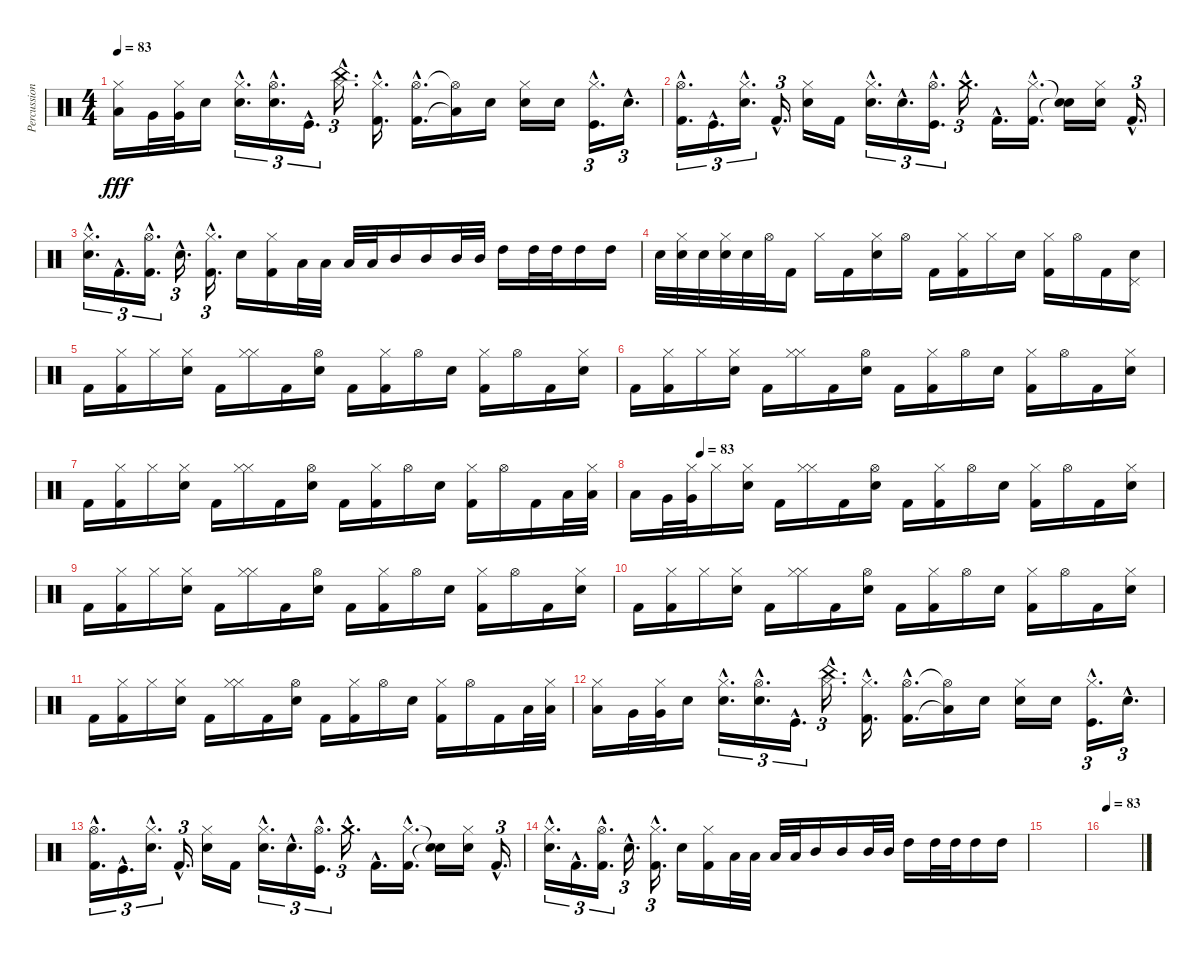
\track ("Percussion" "Percussion") {instrument percussion}
\staff {score}
\articulation defaults
\ts (4 4)
\tempo 83
\clef neutral
\ks c
("Hi-Hat (closed)" "Low Floor Tom (hit)").16{dy fff} "Very Low Tom (hit)".32 ("Hi-Hat (closed)" "Very Low Tom (hit)").32 "Snare (hit) 2".16 ("Hi-Hat (closed)"{hac} "Snare (hit) 2"{hac}).16{d tu (3 2)} ("Hi-Hat (open)"{hac} "Snare (hit) 2"{hac}).16{d tu (3 2)} "Kick (hit)"{hac}.16{d tu (3 2)} ("Hi-Hat (closed)"{hac} "China (hit)"{hac}).16{d tu (3 2)} ("Hi-Hat (closed)"{hac} "Kick (hit) 2"{hac}).16{d} ("Hi-Hat (open)"{hac} "Kick (hit) 2"{hac}).16{d} ("Hi-Hat (open)"{t} "Low Tom (hit)"{t}).16 "Snare (hit) 2".16 ("Hi-Hat (closed)" "Snare (hit) 2").16 "Snare (hit) 2".16 ("Hi-Hat (closed)"{hac} "Kick (hit)"{hac}).16{d tu (3 2)} "Snare (hit) 2"{hac}.16{d tu (3 2)} |
("Hi-Hat (open)"{hac} "Kick (hit) 2"{hac}).16{d tu (3 2)} "Kick (hit)"{hac}.16{d tu (3 2)} ("Hi-Hat (closed)"{hac} "Snare (hit) 2"{hac}).16{d tu (3 2)} "Kick (hit) 2"{hac}.16{d tu (3 2)} ("Hi-Hat (closed)" "Snare (hit) 2").16 "Kick (hit) 2".16 ("Hi-Hat (closed)"{hac} "Snare (hit) 2"{hac}).16{d tu (3 2)} "Snare (hit) 2"{hac}.16{d tu (3 2)} ("Hi-Hat (open)"{hac} "Kick (hit)"{hac}).16{d tu (3 2)} "Crash medium (hit)"{hac}.16{d tu (3 2)} "Kick (hit) 2"{hac}.16{d} ("Hi-Hat (closed)"{hac} "Kick (hit) 2"{hac}).16{d} ("Snare (hit)"{t} "Snare (hit)"{t}).16 ("Hi-Hat (closed)" "Snare (hit) 2").16 "Kick (hit) 2"{hac}.16{d tu (3 2)} |
("Hi-Hat (closed)"{hac} "Snare (hit) 2"{hac}).16{d tu (3 2)} "Kick (hit) 2"{hac}.16{d tu (3 2)} ("Hi-Hat (open)"{hac} "Kick (hit) 2"{hac}).16{d tu (3 2)} "Snare (hit) 2"{hac}.16{d tu (3 2)} ("Hi-Hat (closed)"{hac} "Kick (hit) 2"{hac}).16{d tu (3 2)} "Snare (hit) 2".16 ("Hi-Hat (closed)" "Kick (hit) 2").16 "Low Tom (hit)".32 "Low Tom (hit)".32 "Low Tom (hit)".32 "Low Tom (hit)".32 "Mid Tom (hit)".16 "Mid Tom (hit)".16 "Mid Tom (hit)".32 "Mid Tom (hit)".32 "High Tom (hit)".16 "High Tom (hit)".32 "High Tom (hit)".32 "High Tom (hit)".16 "High Tom (hit)".16 |
"Snare (hit) 2".32 ("Hi-Hat (closed)" "Snare (hit) 2").32 "Snare (hit) 2".32 ("Hi-Hat (closed)" "Snare (hit) 2").32 "Snare (hit) 2".32 "Hi-Hat (open)".32 "Kick (hit) 2".16 "Hi-Hat (closed)".16 "Kick (hit) 2".16 ("Hi-Hat (closed)" "Snare (hit) 2").16 "Hi-Hat (open)".16 "Kick (hit) 2".16 ("Hi-Hat (closed)" "Kick (hit) 2").16 "Hi-Hat (closed)".16 "Snare (hit) 2".16 ("Hi-Hat (closed)" "Kick (hit) 2").16 "Hi-Hat (open)".16 "Kick (hit) 2".16 ("Pedal Hi-Hat (hit)" "Snare (hit) 2").16 |
"Kick (hit) 2".16 ("Hi-Hat (closed)" "Kick (hit) 2").16 "Hi-Hat (closed)".16 ("Hi-Hat (closed)" "Snare (hit) 2").16 "Kick (hit) 2".16 ("Hi-Hat (closed)" "Hi-Hat (closed)").16 "Kick (hit) 2".16 ("Hi-Hat (open)" "Snare (hit) 2").16 "Kick (hit) 2".16 ("Hi-Hat (closed)" "Kick (hit) 2").16 "Hi-Hat (open)".16 "Snare (hit) 2".16 ("Hi-Hat (closed)" "Kick (hit) 2").16 "Hi-Hat (open)".16 "Kick (hit) 2".16 ("Hi-Hat (closed)" "Snare (hit) 2").16 |
"Kick (hit) 2".16 ("Hi-Hat (closed)" "Kick (hit) 2").16 "Hi-Hat (closed)".16 ("Hi-Hat (closed)" "Snare (hit) 2").16 "Kick (hit) 2".16 ("Hi-Hat (closed)" "Hi-Hat (closed)").16 "Kick (hit) 2".16 ("Hi-Hat (open)" "Snare (hit) 2").16 "Kick (hit) 2".16 ("Hi-Hat (closed)" "Kick (hit) 2").16 "Hi-Hat (open)".16 "Snare (hit) 2".16 ("Hi-Hat (closed)" "Kick (hit) 2").16 "Hi-Hat (open)".16 "Kick (hit) 2".16 ("Hi-Hat (closed)" "Snare (hit) 2").16 |
"Kick (hit) 2".16 ("Hi-Hat (closed)" "Kick (hit) 2").16 "Hi-Hat (closed)".16 ("Hi-Hat (closed)" "Snare (hit) 2").16 "Kick (hit) 2".16 ("Hi-Hat (closed)" "Hi-Hat (closed)").16 "Kick (hit) 2".16 ("Hi-Hat (open)" "Snare (hit) 2").16 "Kick (hit) 2".16 ("Hi-Hat (closed)" "Kick (hit) 2").16 "Hi-Hat (open)".16 "Snare (hit) 2".16 ("Hi-Hat (closed)" "Kick (hit) 2").16 "Hi-Hat (open)".16 "Kick (hit) 2".16 "Low Tom (hit)".32 ("Hi-Hat (closed)" "Low Tom (hit)").32 |
\tempo (83 0.125)
"Low Floor Tom (hit)".16 "Very Low Tom (hit)".32 ("Hi-Hat (closed)" "Very Low Tom (hit)").32 "Hi-Hat (closed)".16 ("Hi-Hat (closed)" "Snare (hit) 2").16 "Kick (hit) 2".16 ("Hi-Hat (closed)" "Hi-Hat (closed)").16 "Kick (hit) 2".16 ("Hi-Hat (open)" "Snare (hit) 2").16 "Kick (hit) 2".16 ("Hi-Hat (closed)" "Kick (hit) 2").16 "Hi-Hat (open)".16 "Snare (hit) 2".16 ("Hi-Hat (closed)" "Kick (hit) 2").16 "Hi-Hat (open)".16 "Kick (hit) 2".16 ("Hi-Hat (closed)" "Snare (hit) 2").16 |
"Kick (hit) 2".16 ("Hi-Hat (closed)" "Kick (hit) 2").16 "Hi-Hat (closed)".16 ("Hi-Hat (closed)" "Snare (hit) 2").16 "Kick (hit) 2".16 ("Hi-Hat (closed)" "Hi-Hat (closed)").16 "Kick (hit) 2".16 ("Hi-Hat (open)" "Snare (hit) 2").16 "Kick (hit) 2".16 ("Hi-Hat (closed)" "Kick (hit) 2").16 "Hi-Hat (open)".16 "Snare (hit) 2".16 ("Hi-Hat (closed)" "Kick (hit) 2").16 "Hi-Hat (open)".16 "Kick (hit) 2".16 ("Hi-Hat (closed)" "Snare (hit) 2").16 |
"Kick (hit) 2".16 ("Hi-Hat (closed)" "Kick (hit) 2").16 "Hi-Hat (closed)".16 ("Hi-Hat (closed)" "Snare (hit) 2").16 "Kick (hit) 2".16 ("Hi-Hat (closed)" "Hi-Hat (closed)").16 "Kick (hit) 2".16 ("Hi-Hat (open)" "Snare (hit) 2").16 "Kick (hit) 2".16 ("Hi-Hat (closed)" "Kick (hit) 2").16 "Hi-Hat (open)".16 "Snare (hit) 2".16 ("Hi-Hat (closed)" "Kick (hit) 2").16 "Hi-Hat (open)".16 "Kick (hit) 2".16 ("Hi-Hat (closed)" "Snare (hit) 2").16 |
"Kick (hit) 2".16 ("Hi-Hat (closed)" "Kick (hit) 2").16 "Hi-Hat (closed)".16 ("Hi-Hat (closed)" "Snare (hit) 2").16 "Kick (hit) 2".16 ("Hi-Hat (closed)" "Hi-Hat (closed)").16 "Kick (hit) 2".16 ("Hi-Hat (open)" "Snare (hit) 2").16 "Kick (hit) 2".16 ("Hi-Hat (closed)" "Kick (hit) 2").16 "Hi-Hat (open)".16 "Snare (hit) 2".16 ("Hi-Hat (closed)" "Kick (hit) 2").16 "Hi-Hat (open)".16 "Kick (hit) 2".16 "Low Tom (hit)".32 ("Hi-Hat (closed)" "Low Tom (hit)").32 |
("Hi-Hat (closed)" "Low Floor Tom (hit)").16 "Very Low Tom (hit)".32 ("Hi-Hat (closed)" "Very Low Tom (hit)").32 "Snare (hit) 2".16 ("Hi-Hat (closed)"{hac} "Snare (hit) 2"{hac}).16{d tu (3 2)} ("Hi-Hat (open)"{hac} "Snare (hit) 2"{hac}).16{d tu (3 2)} "Kick (hit)"{hac}.16{d tu (3 2)} ("Hi-Hat (closed)"{hac} "China (hit)"{hac}).16{d tu (3 2)} ("Hi-Hat (closed)"{hac} "Kick (hit) 2"{hac}).16{d} ("Hi-Hat (open)"{hac} "Kick (hit) 2"{hac}).16{d} ("Hi-Hat (open)"{t} "Low Tom (hit)"{t}).16 "Snare (hit) 2".16 ("Hi-Hat (closed)" "Snare (hit) 2").16 "Snare (hit) 2".16 ("Hi-Hat (closed)"{hac} "Kick (hit)"{hac}).16{d tu (3 2)} "Snare (hit) 2"{hac}.16{d tu (3 2)} |
("Hi-Hat (open)"{hac} "Kick (hit) 2"{hac}).16{d tu (3 2)} "Kick (hit)"{hac}.16{d tu (3 2)} ("Hi-Hat (closed)"{hac} "Snare (hit) 2"{hac}).16{d tu (3 2)} "Kick (hit) 2"{hac}.16{d tu (3 2)} ("Hi-Hat (closed)" "Snare (hit) 2").16 "Kick (hit) 2".16 ("Hi-Hat (closed)"{hac} "Snare (hit) 2"{hac}).16{d tu (3 2)} "Snare (hit) 2"{hac}.16{d tu (3 2)} ("Hi-Hat (open)"{hac} "Kick (hit)"{hac}).16{d tu (3 2)} "Crash medium (hit)"{hac}.16{d tu (3 2)} "Kick (hit) 2"{hac}.16{d} ("Hi-Hat (closed)"{hac} "Kick (hit) 2"{hac}).16{d} ("Snare (hit)"{t} "Snare (hit)"{t}).16 ("Hi-Hat (closed)" "Snare (hit) 2").16 "Kick (hit) 2"{hac}.16{d tu (3 2)} |
("Hi-Hat (closed)"{hac} "Snare (hit) 2"{hac}).16{d tu (3 2)} "Kick (hit) 2"{hac}.16{d tu (3 2)} ("Hi-Hat (open)"{hac} "Kick (hit) 2"{hac}).16{d tu (3 2)} "Snare (hit) 2"{hac}.16{d tu (3 2)} ("Hi-Hat (closed)"{hac} "Kick (hit) 2"{hac}).16{d tu (3 2)} "Snare (hit) 2".16 ("Hi-Hat (closed)" "Kick (hit) 2").16 "Low Tom (hit)".32 "Low Tom (hit)".32 "Low Tom (hit)".32 "Low Tom (hit)".32 "Mid Tom (hit)".16 "Mid Tom (hit)".16 "Mid Tom (hit)".32 "Mid Tom (hit)".32 "High Tom (hit)".16 "High Tom (hit)".32 "High Tom (hit)".32 "High Tom (hit)".16 "High Tom (hit)".16 |
|
\tempo (83 0.0625)
